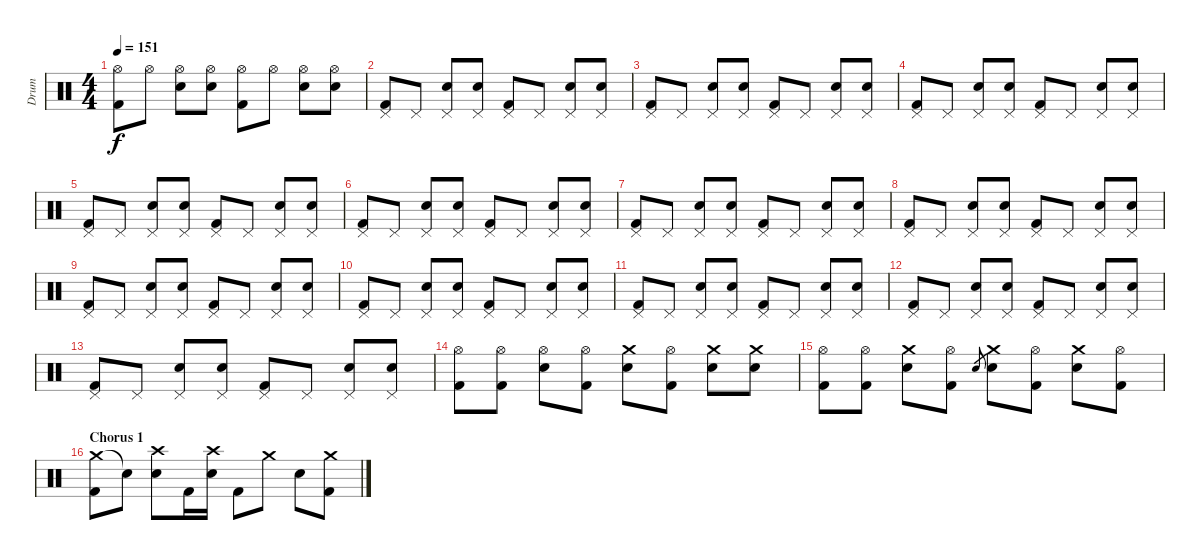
\track ("Drum" "Drum") {instrument percussion}
\staff {score}
\articulation defaults
\ts (4 4)
\tempo 151
\clef neutral
\ks c
("Hi-Hat (open)" "Kick (hit) 2").8{dy f} "Hi-Hat (open)".8 ("Hi-Hat (open)" "Electric Snare (hit)").8 ("Hi-Hat (open)" "Electric Snare (hit)").8 ("Hi-Hat (open)" "Kick (hit) 2").8 "Hi-Hat (open)".8 ("Hi-Hat (open)" "Electric Snare (hit)").8 ("Hi-Hat (open)" "Electric Snare (hit)").8 |
("Pedal Hi-Hat (hit)" "Kick (hit) 2").8 "Pedal Hi-Hat (hit)".8 ("Pedal Hi-Hat (hit)" "Electric Snare (hit)").8 ("Pedal Hi-Hat (hit)" "Electric Snare (hit)").8 ("Pedal Hi-Hat (hit)" "Kick (hit) 2").8 "Pedal Hi-Hat (hit)".8 ("Pedal Hi-Hat (hit)" "Electric Snare (hit)").8 ("Pedal Hi-Hat (hit)" "Electric Snare (hit)").8 |
("Pedal Hi-Hat (hit)" "Kick (hit) 2").8 "Pedal Hi-Hat (hit)".8 ("Pedal Hi-Hat (hit)" "Electric Snare (hit)").8 ("Pedal Hi-Hat (hit)" "Electric Snare (hit)").8 ("Pedal Hi-Hat (hit)" "Kick (hit) 2").8 "Pedal Hi-Hat (hit)".8 ("Pedal Hi-Hat (hit)" "Electric Snare (hit)").8 ("Pedal Hi-Hat (hit)" "Electric Snare (hit)").8 |
("Pedal Hi-Hat (hit)" "Kick (hit) 2").8 "Pedal Hi-Hat (hit)".8 ("Pedal Hi-Hat (hit)" "Electric Snare (hit)").8 ("Pedal Hi-Hat (hit)" "Electric Snare (hit)").8 ("Pedal Hi-Hat (hit)" "Kick (hit) 2").8 "Pedal Hi-Hat (hit)".8 ("Pedal Hi-Hat (hit)" "Electric Snare (hit)").8 ("Pedal Hi-Hat (hit)" "Electric Snare (hit)").8 |
("Pedal Hi-Hat (hit)" "Kick (hit) 2").8 "Pedal Hi-Hat (hit)".8 ("Pedal Hi-Hat (hit)" "Electric Snare (hit)").8 ("Pedal Hi-Hat (hit)" "Electric Snare (hit)").8 ("Pedal Hi-Hat (hit)" "Kick (hit) 2").8 "Pedal Hi-Hat (hit)".8 ("Pedal Hi-Hat (hit)" "Electric Snare (hit)").8 ("Pedal Hi-Hat (hit)" "Electric Snare (hit)").8 |
("Pedal Hi-Hat (hit)" "Kick (hit) 2").8 "Pedal Hi-Hat (hit)".8 ("Pedal Hi-Hat (hit)" "Electric Snare (hit)").8 ("Pedal Hi-Hat (hit)" "Electric Snare (hit)").8 ("Pedal Hi-Hat (hit)" "Kick (hit) 2").8 "Pedal Hi-Hat (hit)".8 ("Pedal Hi-Hat (hit)" "Electric Snare (hit)").8 ("Pedal Hi-Hat (hit)" "Electric Snare (hit)").8 |
("Pedal Hi-Hat (hit)" "Kick (hit) 2").8 "Pedal Hi-Hat (hit)".8 ("Pedal Hi-Hat (hit)" "Electric Snare (hit)").8 ("Pedal Hi-Hat (hit)" "Electric Snare (hit)").8 ("Pedal Hi-Hat (hit)" "Kick (hit) 2").8 "Pedal Hi-Hat (hit)".8 ("Pedal Hi-Hat (hit)" "Electric Snare (hit)").8 ("Pedal Hi-Hat (hit)" "Electric Snare (hit)").8 |
("Pedal Hi-Hat (hit)" "Kick (hit) 2").8 "Pedal Hi-Hat (hit)".8 ("Pedal Hi-Hat (hit)" "Electric Snare (hit)").8 ("Pedal Hi-Hat (hit)" "Electric Snare (hit)").8 ("Pedal Hi-Hat (hit)" "Kick (hit) 2").8 "Pedal Hi-Hat (hit)".8 ("Pedal Hi-Hat (hit)" "Electric Snare (hit)").8 ("Pedal Hi-Hat (hit)" "Electric Snare (hit)").8 |
("Pedal Hi-Hat (hit)" "Kick (hit) 2").8 "Pedal Hi-Hat (hit)".8 ("Pedal Hi-Hat (hit)" "Electric Snare (hit)").8 ("Pedal Hi-Hat (hit)" "Electric Snare (hit)").8 ("Pedal Hi-Hat (hit)" "Kick (hit) 2").8 "Pedal Hi-Hat (hit)".8 ("Pedal Hi-Hat (hit)" "Electric Snare (hit)").8 ("Pedal Hi-Hat (hit)" "Electric Snare (hit)").8 |
("Pedal Hi-Hat (hit)" "Kick (hit) 2").8 "Pedal Hi-Hat (hit)".8 ("Pedal Hi-Hat (hit)" "Electric Snare (hit)").8 ("Pedal Hi-Hat (hit)" "Electric Snare (hit)").8 ("Pedal Hi-Hat (hit)" "Kick (hit) 2").8 "Pedal Hi-Hat (hit)".8 ("Pedal Hi-Hat (hit)" "Electric Snare (hit)").8 ("Pedal Hi-Hat (hit)" "Electric Snare (hit)").8 |
("Pedal Hi-Hat (hit)" "Kick (hit) 2").8 "Pedal Hi-Hat (hit)".8 ("Pedal Hi-Hat (hit)" "Electric Snare (hit)").8 ("Pedal Hi-Hat (hit)" "Electric Snare (hit)").8 ("Pedal Hi-Hat (hit)" "Kick (hit) 2").8 "Pedal Hi-Hat (hit)".8 ("Pedal Hi-Hat (hit)" "Electric Snare (hit)").8 ("Pedal Hi-Hat (hit)" "Electric Snare (hit)").8 |
("Pedal Hi-Hat (hit)" "Kick (hit) 2").8 "Pedal Hi-Hat (hit)".8 ("Pedal Hi-Hat (hit)" "Electric Snare (hit)").8 ("Pedal Hi-Hat (hit)" "Electric Snare (hit)").8 ("Pedal Hi-Hat (hit)" "Kick (hit) 2").8 "Pedal Hi-Hat (hit)".8 ("Pedal Hi-Hat (hit)" "Electric Snare (hit)").8 ("Pedal Hi-Hat (hit)" "Electric Snare (hit)").8 |
("Pedal Hi-Hat (hit)" "Kick (hit) 2").8 "Pedal Hi-Hat (hit)".8 ("Pedal Hi-Hat (hit)" "Electric Snare (hit)").8 ("Pedal Hi-Hat (hit)" "Electric Snare (hit)").8 ("Pedal Hi-Hat (hit)" "Kick (hit) 2").8 "Pedal Hi-Hat (hit)".8 ("Pedal Hi-Hat (hit)" "Electric Snare (hit)").8 ("Pedal Hi-Hat (hit)" "Electric Snare (hit)").8 |
("Hi-Hat (open)" "Kick (hit) 2").8 ("Hi-Hat (open)" "Kick (hit) 2").8 ("Hi-Hat (open)" "Electric Snare (hit)").8 ("Hi-Hat (open)" "Kick (hit) 2").8 ("Crash medium (hit)" "Electric Snare (hit)").8 ("Hi-Hat (open)" "Kick (hit) 2").8 ("Crash medium (hit)" "Electric Snare (hit)").8 ("Crash medium (hit)" "Electric Snare (hit)").8 |
("Hi-Hat (open)" "Kick (hit) 2").8 ("Hi-Hat (open)" "Kick (hit) 2").8 ("Crash medium (hit)" "Electric Snare (hit)").8 ("Hi-Hat (open)" "Kick (hit) 2").8 "Electric Snare (hit)".8{gr} ("Crash medium (hit)" "Electric Snare (hit)").8 ("Hi-Hat (open)" "Kick (hit) 2").8 ("Crash medium (hit)" "Electric Snare (hit)").8 ("Hi-Hat (open)" "Kick (hit) 2").8 |
\section ("" "Chorus 1")
("Crash medium (hit)" "Kick (hit) 2").8 "Snare (hit)"{t}.8 ("Crash high (hit)" "Electric Snare (hit)").8 "Kick (hit) 2".16 ("Crash high (hit)" "Electric Snare (hit)").16 "Kick (hit) 2".8 "Crash medium (hit)".8 "Electric Snare (hit)".8 ("Crash medium (hit)" "Kick (hit) 2").8
